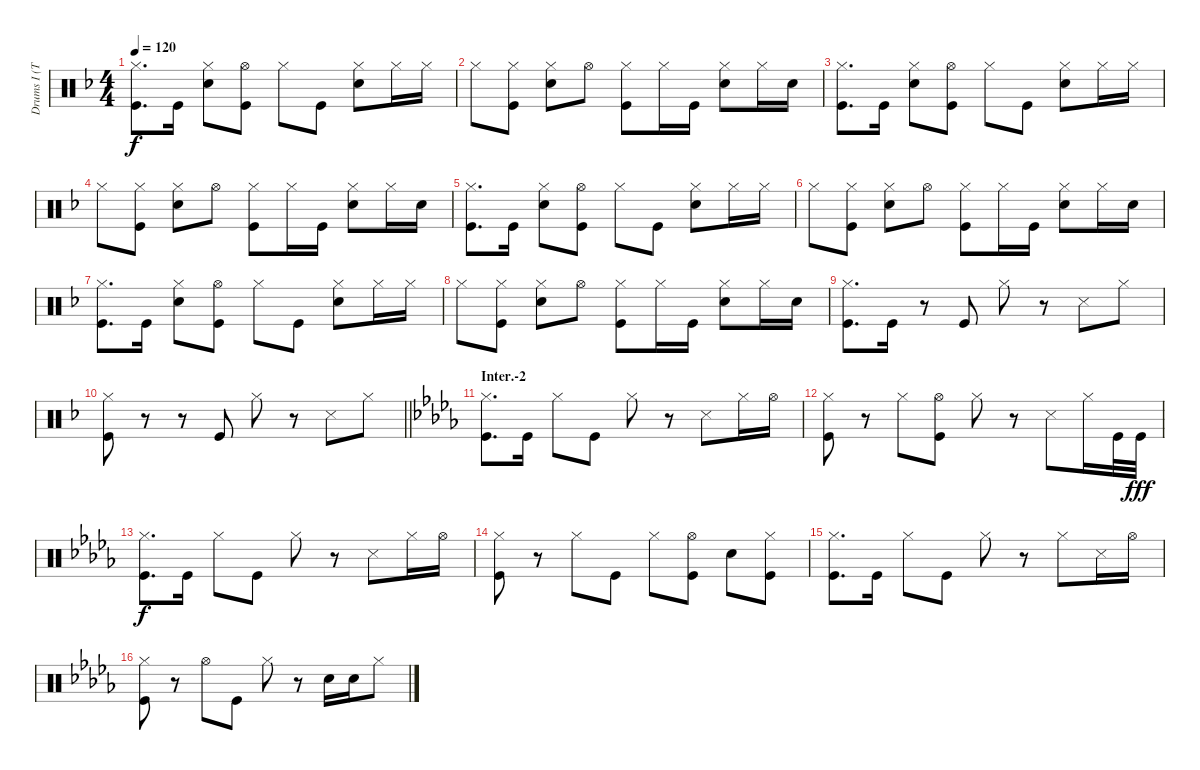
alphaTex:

\track ("Drums I (Tainaka Ritsu)" "Drums I (T") {instrument percussion}
\staff {score}
\articulation defaults
\ts (4 4)
\tempo 120
\clef neutral
\ks f
("Hi-Hat (closed)" "Kick (hit)").8{d dy f} "Kick (hit)".16 ("Hi-Hat (closed)" "Snare (hit) 2").8 ("Hi-Hat (open)" "Kick (hit)").8 "Hi-Hat (closed)".8 "Kick (hit)".8 ("Hi-Hat (closed)" "Snare (hit) 2").8 "Hi-Hat (closed)".16 "Hi-Hat (closed)".16 |
"Hi-Hat (closed)".8 ("Hi-Hat (closed)" "Kick (hit)").8 ("Hi-Hat (closed)" "Snare (hit) 2").8 "Hi-Hat (open)".8 ("Hi-Hat (closed)" "Kick (hit)").8 "Hi-Hat (closed)".16 "Kick (hit)".16 ("Hi-Hat (closed)" "Snare (hit) 2").8 "Hi-Hat (closed)".16 "Snare (hit) 2".16 |
("Hi-Hat (closed)" "Kick (hit)").8{d} "Kick (hit)".16 ("Hi-Hat (closed)" "Snare (hit) 2").8 ("Hi-Hat (open)" "Kick (hit)").8 "Hi-Hat (closed)".8 "Kick (hit)".8 ("Hi-Hat (closed)" "Snare (hit) 2").8 "Hi-Hat (closed)".16 "Hi-Hat (closed)".16 |
"Hi-Hat (closed)".8 ("Hi-Hat (closed)" "Kick (hit)").8 ("Hi-Hat (closed)" "Snare (hit) 2").8 "Hi-Hat (open)".8 ("Hi-Hat (closed)" "Kick (hit)").8 "Hi-Hat (closed)".16 "Kick (hit)".16 ("Hi-Hat (closed)" "Snare (hit) 2").8 "Hi-Hat (closed)".16 "Snare (hit) 2".16 |
("Hi-Hat (closed)" "Kick (hit)").8{d} "Kick (hit)".16 ("Hi-Hat (closed)" "Snare (hit) 2").8 ("Hi-Hat (open)" "Kick (hit)").8 "Hi-Hat (closed)".8 "Kick (hit)".8 ("Hi-Hat (closed)" "Snare (hit) 2").8 "Hi-Hat (closed)".16 "Hi-Hat (closed)".16 |
"Hi-Hat (closed)".8 ("Hi-Hat (closed)" "Kick (hit)").8 ("Hi-Hat (closed)" "Snare (hit) 2").8 "Hi-Hat (open)".8 ("Hi-Hat (closed)" "Kick (hit)").8 "Hi-Hat (closed)".16 "Kick (hit)".16 ("Hi-Hat (closed)" "Snare (hit) 2").8 "Hi-Hat (closed)".16 "Snare (hit) 2".16 |
("Hi-Hat (closed)" "Kick (hit)").8{d} "Kick (hit)".16 ("Hi-Hat (closed)" "Snare (hit) 2").8 ("Hi-Hat (open)" "Kick (hit)").8 "Hi-Hat (closed)".8 "Kick (hit)".8 ("Hi-Hat (closed)" "Snare (hit) 2").8 "Hi-Hat (closed)".16 "Hi-Hat (closed)".16 |
"Hi-Hat (closed)".8 ("Hi-Hat (closed)" "Kick (hit)").8 ("Hi-Hat (closed)" "Snare (hit) 2").8 "Hi-Hat (open)".8 ("Hi-Hat (closed)" "Kick (hit)").8 "Hi-Hat (closed)".16 "Kick (hit)".16 ("Hi-Hat (closed)" "Snare (hit) 2").8 "Hi-Hat (closed)".16 "Snare (hit) 2".16 |
("Hi-Hat (closed)" "Kick (hit)").8{d} "Kick (hit)".16 r.8 "Kick (hit)".8 "Hi-Hat (closed)".8 r.8 "Snare (side stick) 3".8 "Hi-Hat (closed)".8 |
\barLineRight lightlight
("Hi-Hat (closed)" "Kick (hit)").8 r.8 r.8 "Kick (hit)".8 "Hi-Hat (closed)".8 r.8 "Snare (side stick) 3".8 "Hi-Hat (closed)".8 |
\section ("" "Inter.-2")
\ks db
("Hi-Hat (closed)" "Kick (hit)").8{d} "Kick (hit)".16 "Hi-Hat (closed)".8 "Kick (hit)".8 "Hi-Hat (closed)".8 r.8 "Snare (side stick) 3".8 "Hi-Hat (closed)".16 "Hi-Hat (open)".16 |
("Hi-Hat (closed)" "Kick (hit)").8 r.8 "Hi-Hat (closed)".8 ("Hi-Hat (open)" "Kick (hit)").8 "Hi-Hat (closed)".8 r.8 "Snare (side stick) 3".8 "Hi-Hat (closed)".16 "Kick (hit)".32 "Kick (hit)".32{dy fff} |
("Hi-Hat (closed)" "Kick (hit)").8{d dy f} "Kick (hit)".16 "Hi-Hat (closed)".8 "Kick (hit)".8 "Hi-Hat (closed)".8 r.8 "Snare (side stick) 3".8 "Hi-Hat (closed)".16 "Hi-Hat (open)".16 |
("Hi-Hat (closed)" "Kick (hit)").8 r.8 "Hi-Hat (closed)".8 "Kick (hit)".8 "Hi-Hat (closed)".8 ("Hi-Hat (open)" "Kick (hit)").8 "Snare (hit) 2".8 ("Hi-Hat (closed)" "Kick (hit)").8 |
("Hi-Hat (closed)" "Kick (hit)").8{d} "Kick (hit)".16 "Hi-Hat (closed)".8 "Kick (hit)".8 "Hi-Hat (closed)".8 r.8 "Hi-Hat (closed)".8 "Snare (side stick) 3".16 "Hi-Hat (open)".16 |
("Hi-Hat (closed)" "Kick (hit)").8 r.8 "Hi-Hat (open)".8 "Kick (hit)".8 "Hi-Hat (closed)".8 r.8 "Snare (hit) 2".16 "Snare (hit) 2".16 "Hi-Hat (closed)".8
